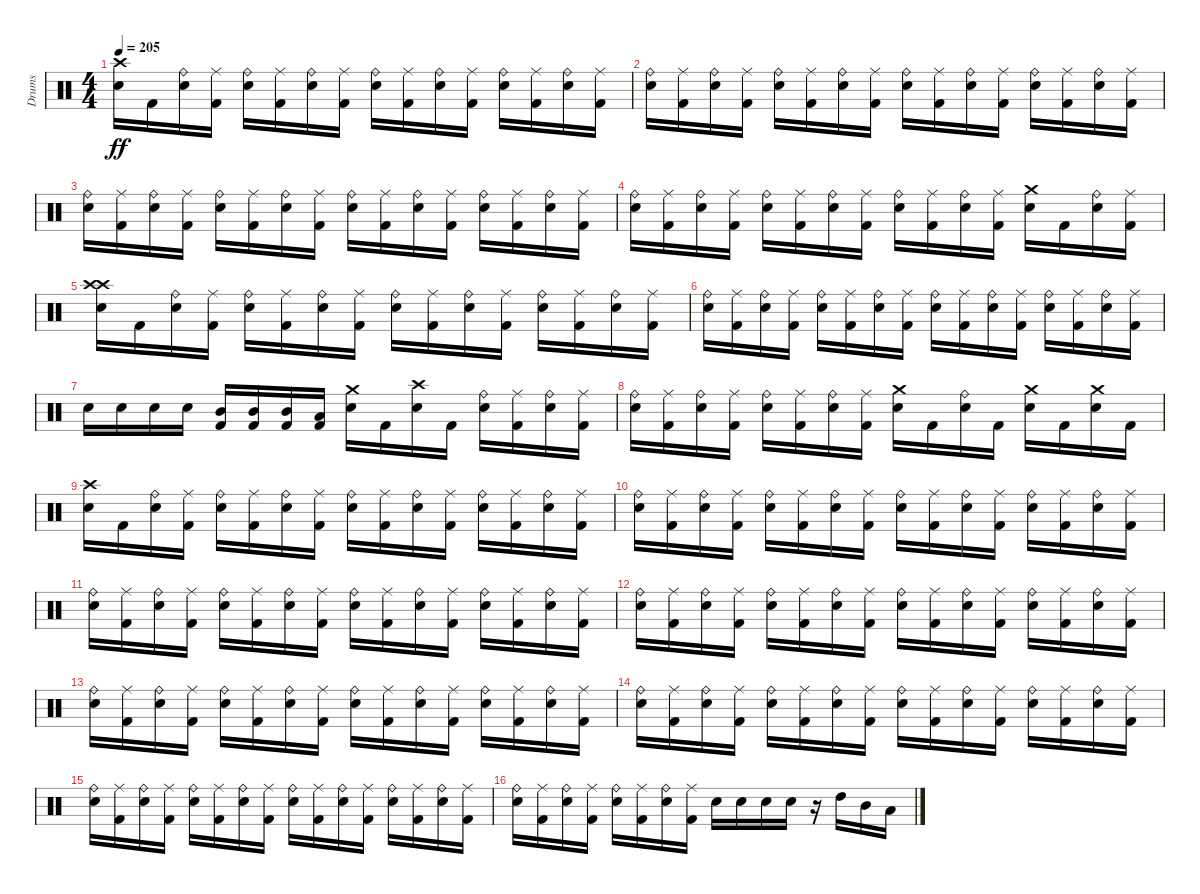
\track ("Drums" "Drums") {instrument percussion}
\staff {score}
\articulation defaults
\ts (4 4)
\tempo 205
\clef neutral
\ks c
("Crash high (hit)" "Snare (hit) 2").16{dy ff} "Kick (hit) 2".16 ("Snare (hit) 2" "Ride (bell)").16 ("Kick (hit) 2" "Ride (middle)").16 ("Snare (hit) 2" "Ride (bell)").16 ("Kick (hit) 2" "Ride (middle)").16 ("Snare (hit) 2" "Ride (bell)").16 ("Kick (hit) 2" "Ride (middle)").16 ("Snare (hit) 2" "Ride (bell)").16 ("Kick (hit) 2" "Ride (middle)").16 ("Snare (hit) 2" "Ride (bell)").16 ("Kick (hit) 2" "Ride (middle)").16 ("Snare (hit) 2" "Ride (bell)").16 ("Kick (hit) 2" "Ride (middle)").16 ("Snare (hit) 2" "Ride (bell)").16 ("Kick (hit) 2" "Ride (middle)").16 |
("Snare (hit) 2" "Ride (bell)").16 ("Kick (hit) 2" "Ride (middle)").16 ("Snare (hit) 2" "Ride (bell)").16 ("Kick (hit) 2" "Ride (middle)").16 ("Snare (hit) 2" "Ride (bell)").16 ("Kick (hit) 2" "Ride (middle)").16 ("Snare (hit) 2" "Ride (bell)").16 ("Kick (hit) 2" "Ride (middle)").16 ("Snare (hit) 2" "Ride (bell)").16 ("Kick (hit) 2" "Ride (middle)").16 ("Snare (hit) 2" "Ride (bell)").16 ("Kick (hit) 2" "Ride (middle)").16 ("Snare (hit) 2" "Ride (bell)").16 ("Kick (hit) 2" "Ride (middle)").16 ("Snare (hit) 2" "Ride (bell)").16 ("Kick (hit) 2" "Ride (middle)").16 |
("Snare (hit) 2" "Ride (bell)").16 ("Kick (hit) 2" "Ride (middle)").16 ("Snare (hit) 2" "Ride (bell)").16 ("Kick (hit) 2" "Ride (middle)").16 ("Snare (hit) 2" "Ride (bell)").16 ("Kick (hit) 2" "Ride (middle)").16 ("Snare (hit) 2" "Ride (bell)").16 ("Kick (hit) 2" "Ride (middle)").16 ("Snare (hit) 2" "Ride (bell)").16 ("Kick (hit) 2" "Ride (middle)").16 ("Snare (hit) 2" "Ride (bell)").16 ("Kick (hit) 2" "Ride (middle)").16 ("Snare (hit) 2" "Ride (bell)").16 ("Kick (hit) 2" "Ride (middle)").16 ("Snare (hit) 2" "Ride (bell)").16 ("Kick (hit) 2" "Ride (middle)").16 |
("Snare (hit) 2" "Ride (bell)").16 ("Kick (hit) 2" "Ride (middle)").16 ("Snare (hit) 2" "Ride (bell)").16 ("Kick (hit) 2" "Ride (middle)").16 ("Snare (hit) 2" "Ride (bell)").16 ("Kick (hit) 2" "Ride (middle)").16 ("Snare (hit) 2" "Ride (bell)").16 ("Kick (hit) 2" "Ride (middle)").16 ("Snare (hit) 2" "Ride (bell)").16 ("Kick (hit) 2" "Ride (middle)").16 ("Snare (hit) 2" "Ride (bell)").16 ("Kick (hit) 2" "Ride (middle)").16 ("Crash medium (hit)" "Snare (hit) 2").16 "Kick (hit) 2".16 ("Snare (hit) 2" "Ride (bell)").16 ("Kick (hit) 2" "Ride (middle)").16 |
("Crash high (hit)" "Crash high (hit)" "Snare (hit) 2").16 "Kick (hit) 2".16 ("Snare (hit) 2" "Ride (bell)").16 ("Kick (hit) 2" "Ride (middle)").16 ("Snare (hit) 2" "Ride (bell)").16 ("Kick (hit) 2" "Ride (middle)").16 ("Snare (hit) 2" "Ride (bell)").16 ("Kick (hit) 2" "Ride (middle)").16 ("Snare (hit) 2" "Ride (bell)").16 ("Kick (hit) 2" "Ride (middle)").16 ("Snare (hit) 2" "Ride (bell)").16 ("Kick (hit) 2" "Ride (middle)").16 ("Snare (hit) 2" "Ride (bell)").16 ("Kick (hit) 2" "Ride (middle)").16 ("Snare (hit) 2" "Ride (bell)").16 ("Kick (hit) 2" "Ride (middle)").16 |
("Snare (hit) 2" "Ride (bell)").16 ("Kick (hit) 2" "Ride (middle)").16 ("Snare (hit) 2" "Ride (bell)").16 ("Kick (hit) 2" "Ride (middle)").16 ("Snare (hit) 2" "Ride (bell)").16 ("Kick (hit) 2" "Ride (middle)").16 ("Snare (hit) 2" "Ride (bell)").16 ("Kick (hit) 2" "Ride (middle)").16 ("Snare (hit) 2" "Ride (bell)").16 ("Kick (hit) 2" "Ride (middle)").16 ("Snare (hit) 2" "Ride (bell)").16 ("Kick (hit) 2" "Ride (middle)").16 ("Snare (hit) 2" "Ride (bell)").16 ("Kick (hit) 2" "Ride (middle)").16 ("Snare (hit) 2" "Ride (bell)").16 ("Kick (hit) 2" "Ride (middle)").16 |
"Snare (hit) 2".16 "Snare (hit) 2".16 "Snare (hit) 2".16 "Snare (hit) 2".16 ("Kick (hit) 2" "Mid Tom (hit)").16 ("Kick (hit) 2" "Mid Tom (hit)").16 ("Kick (hit) 2" "Mid Tom (hit)").16 ("Kick (hit) 2" "Low Tom (hit)").16 ("Crash medium (hit)" "Snare (hit) 2").16 "Kick (hit) 2".16 ("Crash high (hit)" "Snare (hit) 2").16 "Kick (hit) 2".16 ("Snare (hit) 2" "Ride (bell)").16 ("Kick (hit) 2" "Ride (middle)").16 ("Snare (hit) 2" "Ride (bell)").16 ("Kick (hit) 2" "Ride (middle)").16 |
("Snare (hit) 2" "Ride (bell)").16 ("Kick (hit) 2" "Ride (middle)").16 ("Snare (hit) 2" "Ride (bell)").16 ("Kick (hit) 2" "Ride (middle)").16 ("Snare (hit) 2" "Ride (bell)").16 ("Kick (hit) 2" "Ride (middle)").16 ("Snare (hit) 2" "Ride (bell)").16 ("Kick (hit) 2" "Ride (middle)").16 ("Crash medium (hit)" "Snare (hit) 2").16 "Kick (hit) 2".16 ("Snare (hit) 2" "Ride (bell)").16 "Kick (hit) 2".16 ("Crash medium (hit)" "Snare (hit) 2").16 "Kick (hit) 2".16 ("Crash medium (hit)" "Snare (hit) 2").16 "Kick (hit) 2".16 |
("Snare (hit) 2" "Crash high (hit)").16 "Kick (hit) 2".16 ("Snare (hit) 2" "Ride (bell)").16 ("Kick (hit) 2" "Ride (middle)").16 ("Snare (hit) 2" "Ride (bell)").16 ("Kick (hit) 2" "Ride (middle)").16 ("Snare (hit) 2" "Ride (bell)").16 ("Kick (hit) 2" "Ride (middle)").16 ("Snare (hit) 2" "Ride (bell)").16 ("Kick (hit) 2" "Ride (middle)").16 ("Snare (hit) 2" "Ride (bell)").16 ("Kick (hit) 2" "Ride (middle)").16 ("Snare (hit) 2" "Ride (bell)").16 ("Kick (hit) 2" "Ride (middle)").16 ("Snare (hit) 2" "Ride (bell)").16 ("Kick (hit) 2" "Ride (middle)").16 |
("Snare (hit) 2" "Ride (bell)").16 ("Kick (hit) 2" "Ride (middle)").16 ("Snare (hit) 2" "Ride (bell)").16 ("Kick (hit) 2" "Ride (middle)").16 ("Snare (hit) 2" "Ride (bell)").16 ("Kick (hit) 2" "Ride (middle)").16 ("Snare (hit) 2" "Ride (bell)").16 ("Kick (hit) 2" "Ride (middle)").16 ("Snare (hit) 2" "Ride (bell)").16 ("Kick (hit) 2" "Ride (middle)").16 ("Snare (hit) 2" "Ride (bell)").16 ("Kick (hit) 2" "Ride (middle)").16 ("Snare (hit) 2" "Ride (bell)").16 ("Kick (hit) 2" "Ride (middle)").16 ("Snare (hit) 2" "Ride (bell)").16 ("Kick (hit) 2" "Ride (middle)").16 |
("Snare (hit) 2" "Ride (bell)").16 ("Kick (hit) 2" "Ride (middle)").16 ("Snare (hit) 2" "Ride (bell)").16 ("Kick (hit) 2" "Ride (middle)").16 ("Snare (hit) 2" "Ride (bell)").16 ("Kick (hit) 2" "Ride (middle)").16 ("Snare (hit) 2" "Ride (bell)").16 ("Kick (hit) 2" "Ride (middle)").16 ("Snare (hit) 2" "Ride (bell)").16 ("Kick (hit) 2" "Ride (middle)").16 ("Snare (hit) 2" "Ride (bell)").16 ("Kick (hit) 2" "Ride (middle)").16 ("Snare (hit) 2" "Ride (bell)").16 ("Kick (hit) 2" "Ride (middle)").16 ("Snare (hit) 2" "Ride (bell)").16 ("Kick (hit) 2" "Ride (middle)").16 |
("Snare (hit) 2" "Ride (bell)").16 ("Kick (hit) 2" "Ride (middle)").16 ("Snare (hit) 2" "Ride (bell)").16 ("Kick (hit) 2" "Ride (middle)").16 ("Snare (hit) 2" "Ride (bell)").16 ("Kick (hit) 2" "Ride (middle)").16 ("Snare (hit) 2" "Ride (bell)").16 ("Kick (hit) 2" "Ride (middle)").16 ("Snare (hit) 2" "Ride (bell)").16 ("Kick (hit) 2" "Ride (middle)").16 ("Snare (hit) 2" "Ride (bell)").16 ("Kick (hit) 2" "Ride (middle)").16 ("Snare (hit) 2" "Ride (bell)").16 ("Kick (hit) 2" "Ride (middle)").16 ("Snare (hit) 2" "Ride (bell)").16 ("Kick (hit) 2" "Ride (middle)").16 |
("Snare (hit) 2" "Ride (bell)").16 ("Kick (hit) 2" "Ride (middle)").16 ("Snare (hit) 2" "Ride (bell)").16 ("Kick (hit) 2" "Ride (middle)").16 ("Snare (hit) 2" "Ride (bell)").16 ("Kick (hit) 2" "Ride (middle)").16 ("Snare (hit) 2" "Ride (bell)").16 ("Kick (hit) 2" "Ride (middle)").16 ("Snare (hit) 2" "Ride (bell)").16 ("Kick (hit) 2" "Ride (middle)").16 ("Snare (hit) 2" "Ride (bell)").16 ("Kick (hit) 2" "Ride (middle)").16 ("Snare (hit) 2" "Ride (bell)").16 ("Kick (hit) 2" "Ride (middle)").16 ("Snare (hit) 2" "Ride (bell)").16 ("Kick (hit) 2" "Ride (middle)").16 |
("Snare (hit) 2" "Ride (bell)").16 ("Kick (hit) 2" "Ride (middle)").16 ("Snare (hit) 2" "Ride (bell)").16 ("Kick (hit) 2" "Ride (middle)").16 ("Snare (hit) 2" "Ride (bell)").16 ("Kick (hit) 2" "Ride (middle)").16 ("Snare (hit) 2" "Ride (bell)").16 ("Kick (hit) 2" "Ride (middle)").16 ("Snare (hit) 2" "Ride (bell)").16 ("Kick (hit) 2" "Ride (middle)").16 ("Snare (hit) 2" "Ride (bell)").16 ("Kick (hit) 2" "Ride (middle)").16 ("Snare (hit) 2" "Ride (bell)").16 ("Kick (hit) 2" "Ride (middle)").16 ("Snare (hit) 2" "Ride (bell)").16 ("Kick (hit) 2" "Ride (middle)").16 |
("Snare (hit) 2" "Ride (bell)").16 ("Kick (hit) 2" "Ride (middle)").16 ("Snare (hit) 2" "Ride (bell)").16 ("Kick (hit) 2" "Ride (middle)").16 ("Snare (hit) 2" "Ride (bell)").16 ("Kick (hit) 2" "Ride (middle)").16 ("Snare (hit) 2" "Ride (bell)").16 ("Kick (hit) 2" "Ride (middle)").16 ("Snare (hit) 2" "Ride (bell)").16 ("Kick (hit) 2" "Ride (middle)").16 ("Snare (hit) 2" "Ride (bell)").16 ("Kick (hit) 2" "Ride (middle)").16 ("Snare (hit) 2" "Ride (bell)").16 ("Kick (hit) 2" "Ride (middle)").16 ("Snare (hit) 2" "Ride (bell)").16 ("Kick (hit) 2" "Ride (middle)").16 |
("Snare (hit) 2" "Ride (bell)").16 ("Kick (hit) 2" "Ride (middle)").16 ("Snare (hit) 2" "Ride (bell)").16 ("Kick (hit) 2" "Ride (middle)").16 ("Snare (hit) 2" "Ride (bell)").16 ("Kick (hit) 2" "Ride (middle)").16 ("Snare (hit) 2" "Ride (bell)").16 ("Kick (hit) 2" "Ride (middle)").16 "Snare (hit) 2".16 "Snare (hit) 2".16 "Snare (hit) 2".16 "Snare (hit) 2".16 r.16 "High Tom (hit)".16 "Mid Tom (hit)".16 "Low Tom (hit)".16
